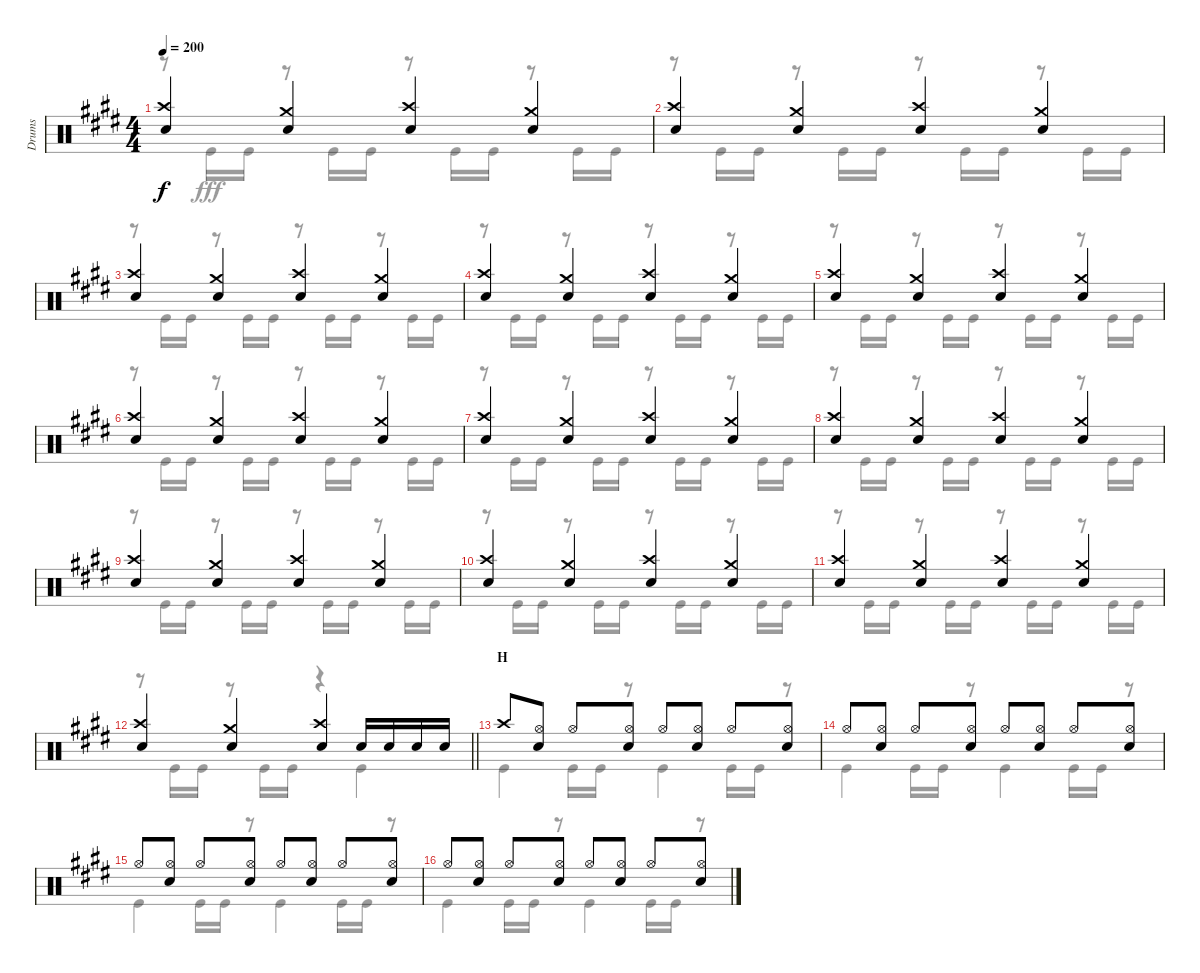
\track ("Drums" "Drums") {instrument percussion}
\staff {score}
\articulation defaults
\voice
\ts (4 4)
\tempo 200
\clef neutral
\ks e
("Crash high (hit)" "Snare (hit) 2").4{dy f} ("Crash medium (hit)" "Snare (hit) 2").4 ("Crash high (hit)" "Snare (hit) 2").4 ("Crash medium (hit)" "Snare (hit) 2").4 |
("Crash high (hit)" "Snare (hit) 2").4 ("Crash medium (hit)" "Snare (hit) 2").4 ("Crash high (hit)" "Snare (hit) 2").4 ("Crash medium (hit)" "Snare (hit) 2").4 |
("Crash high (hit)" "Snare (hit) 2").4 ("Crash medium (hit)" "Snare (hit) 2").4 ("Crash high (hit)" "Snare (hit) 2").4 ("Crash medium (hit)" "Snare (hit) 2").4 |
("Crash high (hit)" "Snare (hit) 2").4 ("Crash medium (hit)" "Snare (hit) 2").4 ("Crash high (hit)" "Snare (hit) 2").4 ("Crash medium (hit)" "Snare (hit) 2").4 |
("Crash high (hit)" "Snare (hit) 2").4 ("Crash medium (hit)" "Snare (hit) 2").4 ("Crash high (hit)" "Snare (hit) 2").4 ("Crash medium (hit)" "Snare (hit) 2").4 |
("Crash high (hit)" "Snare (hit) 2").4 ("Crash medium (hit)" "Snare (hit) 2").4 ("Crash high (hit)" "Snare (hit) 2").4 ("Crash medium (hit)" "Snare (hit) 2").4 |
("Crash high (hit)" "Snare (hit) 2").4 ("Crash medium (hit)" "Snare (hit) 2").4 ("Crash high (hit)" "Snare (hit) 2").4 ("Crash medium (hit)" "Snare (hit) 2").4 |
("Crash high (hit)" "Snare (hit) 2").4 ("Crash medium (hit)" "Snare (hit) 2").4 ("Crash high (hit)" "Snare (hit) 2").4 ("Crash medium (hit)" "Snare (hit) 2").4 |
("Crash high (hit)" "Snare (hit) 2").4 ("Crash medium (hit)" "Snare (hit) 2").4 ("Crash high (hit)" "Snare (hit) 2").4 ("Crash medium (hit)" "Snare (hit) 2").4 |
("Crash high (hit)" "Snare (hit) 2").4 ("Crash medium (hit)" "Snare (hit) 2").4 ("Crash high (hit)" "Snare (hit) 2").4 ("Crash medium (hit)" "Snare (hit) 2").4 |
("Crash high (hit)" "Snare (hit) 2").4 ("Crash medium (hit)" "Snare (hit) 2").4 ("Crash high (hit)" "Snare (hit) 2").4 ("Crash medium (hit)" "Snare (hit) 2").4 |
\barLineRight lightlight
("Crash high (hit)" "Snare (hit) 2").4 ("Crash medium (hit)" "Snare (hit) 2").4 ("Crash high (hit)" "Snare (hit) 2").4 "Snare (hit) 2".16 "Snare (hit) 2".16 "Snare (hit) 2".16 "Snare (hit) 2".16 |
\section ("" "H")
"Crash high (hit)".8 ("Hi-Hat (open)" "Snare (hit) 2").8 "Hi-Hat (open)".8 ("Hi-Hat (open)" "Snare (hit) 2").8 "Hi-Hat (open)".8 ("Hi-Hat (open)" "Snare (hit) 2").8 "Hi-Hat (open)".8 ("Hi-Hat (open)" "Snare (hit) 2").8 |
"Hi-Hat (open)".8 ("Hi-Hat (open)" "Snare (hit) 2").8 "Hi-Hat (open)".8 ("Hi-Hat (open)" "Snare (hit) 2").8 "Hi-Hat (open)".8 ("Hi-Hat (open)" "Snare (hit) 2").8 "Hi-Hat (open)".8 ("Hi-Hat (open)" "Snare (hit) 2").8 |
"Hi-Hat (open)".8 ("Hi-Hat (open)" "Snare (hit) 2").8 "Hi-Hat (open)".8 ("Hi-Hat (open)" "Snare (hit) 2").8 "Hi-Hat (open)".8 ("Hi-Hat (open)" "Snare (hit) 2").8 "Hi-Hat (open)".8 ("Hi-Hat (open)" "Snare (hit) 2").8 |
"Hi-Hat (open)".8 ("Hi-Hat (open)" "Snare (hit) 2").8 "Hi-Hat (open)".8 ("Hi-Hat (open)" "Snare (hit) 2").8 "Hi-Hat (open)".8 ("Hi-Hat (open)" "Snare (hit) 2").8 "Hi-Hat (open)".8 ("Hi-Hat (open)" "Snare (hit) 2").8
\voice
\clef neutral
\ottava regular
\simile none
\ks e
r.8{dy fff} "Kick (hit)".16 "Kick (hit)".16 r.8 "Kick (hit)".16 "Kick (hit)".16 r.8 "Kick (hit)".16 "Kick (hit)".16 r.8 "Kick (hit)".16 "Kick (hit)".16 |
r.8 "Kick (hit)".16 "Kick (hit)".16 r.8 "Kick (hit)".16 "Kick (hit)".16 r.8 "Kick (hit)".16 "Kick (hit)".16 r.8 "Kick (hit)".16 "Kick (hit)".16 |
r.8 "Kick (hit)".16 "Kick (hit)".16 r.8 "Kick (hit)".16 "Kick (hit)".16 r.8 "Kick (hit)".16 "Kick (hit)".16 r.8 "Kick (hit)".16 "Kick (hit)".16 |
r.8 "Kick (hit)".16 "Kick (hit)".16 r.8 "Kick (hit)".16 "Kick (hit)".16 r.8 "Kick (hit)".16 "Kick (hit)".16 r.8 "Kick (hit)".16 "Kick (hit)".16 |
r.8 "Kick (hit)".16 "Kick (hit)".16 r.8 "Kick (hit)".16 "Kick (hit)".16 r.8 "Kick (hit)".16 "Kick (hit)".16 r.8 "Kick (hit)".16 "Kick (hit)".16 |
r.8 "Kick (hit)".16 "Kick (hit)".16 r.8 "Kick (hit)".16 "Kick (hit)".16 r.8 "Kick (hit)".16 "Kick (hit)".16 r.8 "Kick (hit)".16 "Kick (hit)".16 |
r.8 "Kick (hit)".16 "Kick (hit)".16 r.8 "Kick (hit)".16 "Kick (hit)".16 r.8 "Kick (hit)".16 "Kick (hit)".16 r.8 "Kick (hit)".16 "Kick (hit)".16 |
r.8 "Kick (hit)".16 "Kick (hit)".16 r.8 "Kick (hit)".16 "Kick (hit)".16 r.8 "Kick (hit)".16 "Kick (hit)".16 r.8 "Kick (hit)".16 "Kick (hit)".16 |
r.8 "Kick (hit)".16 "Kick (hit)".16 r.8 "Kick (hit)".16 "Kick (hit)".16 r.8 "Kick (hit)".16 "Kick (hit)".16 r.8 "Kick (hit)".16 "Kick (hit)".16 |
r.8 "Kick (hit)".16 "Kick (hit)".16 r.8 "Kick (hit)".16 "Kick (hit)".16 r.8 "Kick (hit)".16 "Kick (hit)".16 r.8 "Kick (hit)".16 "Kick (hit)".16 |
r.8 "Kick (hit)".16 "Kick (hit)".16 r.8 "Kick (hit)".16 "Kick (hit)".16 r.8 "Kick (hit)".16 "Kick (hit)".16 r.8 "Kick (hit)".16 "Kick (hit)".16 |
\barLineRight lightlight
r.8 "Kick (hit)".16 "Kick (hit)".16 r.8 "Kick (hit)".16 "Kick (hit)".16 r.4 "Kick (hit)".4 |
"Kick (hit)".4 "Kick (hit)".16 "Kick (hit)".16 r.8 "Kick (hit)".4 "Kick (hit)".16 "Kick (hit)".16 r.8 |
"Kick (hit)".4 "Kick (hit)".16 "Kick (hit)".16 r.8 "Kick (hit)".4 "Kick (hit)".16 "Kick (hit)".16 r.8 |
"Kick (hit)".4 "Kick (hit)".16 "Kick (hit)".16 r.8 "Kick (hit)".4 "Kick (hit)".16 "Kick (hit)".16 r.8 |
"Kick (hit)".4 "Kick (hit)".16 "Kick (hit)".16 r.8 "Kick (hit)".4 "Kick (hit)".16 "Kick (hit)".16 r.8
